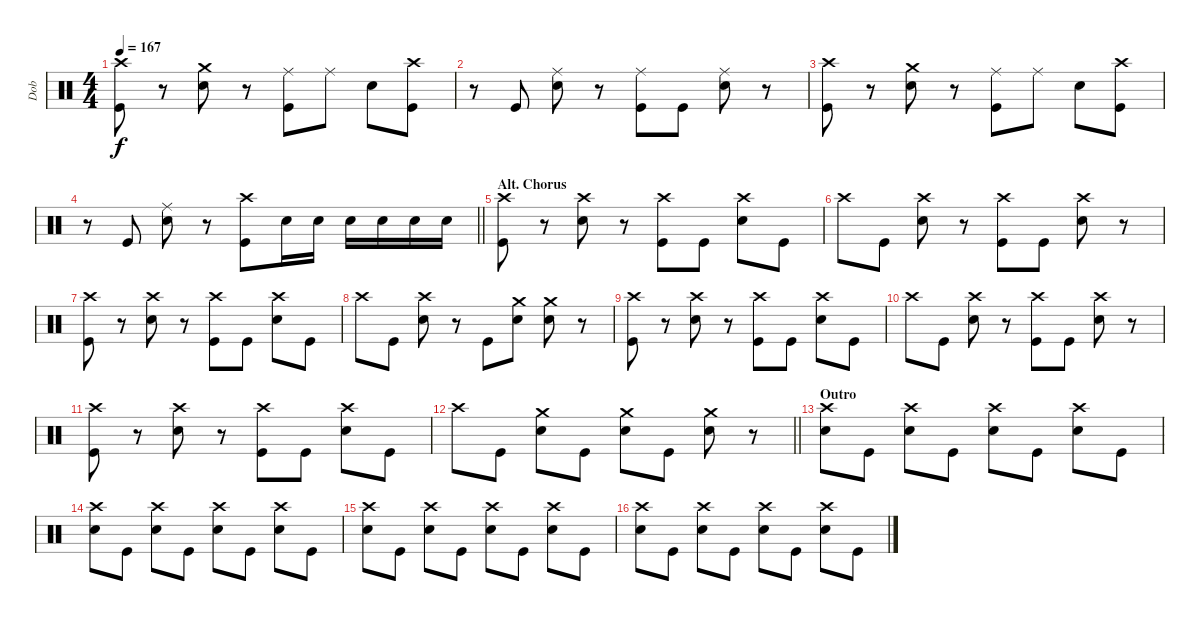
\track ("Dob" "Dob") {instrument percussion}
\staff {score}
\articulation defaults
\ts (4 4)
\tempo 167
\clef neutral
\ks c
("Crash high (hit)" "Kick (hit)").8{dy f} r.8 ("Crash medium (hit)" "Snare (hit) 2").8 r.8 ("Ride (middle)" "Kick (hit)").8 "Ride (middle)".8 "Snare (hit) 2".8 ("Crash high (hit)" "Kick (hit)").8 |
r.8 "Kick (hit)".8 ("Ride (middle)" "Snare (hit) 2").8 r.8 ("Ride (middle)" "Kick (hit)").8 "Kick (hit)".8 ("Ride (middle)" "Snare (hit) 2").8 r.8 |
("Crash high (hit)" "Kick (hit)").8 r.8 ("Crash medium (hit)" "Snare (hit) 2").8 r.8 ("Ride (middle)" "Kick (hit)").8 "Ride (middle)".8 "Snare (hit) 2".8 ("Crash high (hit)" "Kick (hit)").8 |
\barLineRight lightlight
r.8 "Kick (hit)".8 ("Ride (middle)" "Snare (hit) 2").8 r.8 ("Crash high (hit)" "Kick (hit)").8 "Snare (hit) 2".16 "Snare (hit) 2".16 "Snare (hit) 2".16 "Snare (hit) 2".16 "Snare (hit) 2".16 "Snare (hit) 2".16 |
\section ("" "Alt. Chorus")
("Crash high (hit)" "Kick (hit)").8 r.8 ("Crash high (hit)" "Snare (hit) 2").8 r.8 ("Crash high (hit)" "Kick (hit)").8 "Kick (hit)".8 ("Crash high (hit)" "Snare (hit) 2").8 "Kick (hit)".8 |
"Crash high (hit)".8 "Kick (hit)".8 ("Crash high (hit)" "Snare (hit) 2").8 r.8 ("Crash high (hit)" "Kick (hit)").8 "Kick (hit)".8 ("Crash high (hit)" "Snare (hit) 2").8 r.8 |
("Crash high (hit)" "Kick (hit)").8 r.8 ("Crash high (hit)" "Snare (hit) 2").8 r.8 ("Crash high (hit)" "Kick (hit)").8 "Kick (hit)".8 ("Crash high (hit)" "Snare (hit) 2").8 "Kick (hit)".8 |
"Crash high (hit)".8 "Kick (hit)".8 ("Crash high (hit)" "Snare (hit) 2").8 r.8 "Kick (hit)".8 ("Crash medium (hit)" "Snare (hit) 2").8 ("Crash medium (hit)" "Snare (hit) 2").8 r.8 |
("Crash high (hit)" "Kick (hit)").8 r.8 ("Crash high (hit)" "Snare (hit) 2").8 r.8 ("Crash high (hit)" "Kick (hit)").8 "Kick (hit)".8 ("Crash high (hit)" "Snare (hit) 2").8 "Kick (hit)".8 |
"Crash high (hit)".8 "Kick (hit)".8 ("Crash high (hit)" "Snare (hit) 2").8 r.8 ("Crash high (hit)" "Kick (hit)").8 "Kick (hit)".8 ("Crash high (hit)" "Snare (hit) 2").8 r.8 |
("Crash high (hit)" "Kick (hit)").8 r.8 ("Crash high (hit)" "Snare (hit) 2").8 r.8 ("Crash high (hit)" "Kick (hit)").8 "Kick (hit)".8 ("Crash high (hit)" "Snare (hit) 2").8 "Kick (hit)".8 |
\barLineRight lightlight "Crash high (hit)".8 "Kick (hit)".8
("Crash medium (hit)" "Snare (hit) 2").8 "Kick (hit)".8 ("Crash medium (hit)" "Snare (hit) 2").8 "Kick (hit)".8 ("Crash medium (hit)" "Snare (hit) 2").8 r.8 |
\section ("" "Outro")
("Crash high (hit)" "Snare (hit) 2").8 "Kick (hit)".8 ("Crash high (hit)" "Snare (hit) 2").8 "Kick (hit)".8 ("Crash high (hit)" "Snare (hit) 2").8 "Kick (hit)".8 ("Crash high (hit)" "Snare (hit) 2").8 "Kick (hit)".8 |
("Crash high (hit)" "Snare (hit) 2").8 "Kick (hit)".8 ("Crash high (hit)" "Snare (hit) 2").8 "Kick (hit)".8 ("Crash high (hit)" "Snare (hit) 2").8 "Kick (hit)".8 ("Crash high (hit)" "Snare (hit) 2").8 "Kick (hit)".8 |
("Crash high (hit)" "Snare (hit) 2").8 "Kick (hit)".8 ("Crash high (hit)" "Snare (hit) 2").8 "Kick (hit)".8 ("Crash high (hit)" "Snare (hit) 2").8 "Kick (hit)".8 ("Crash high (hit)" "Snare (hit) 2").8 "Kick (hit)".8 |
("Crash high (hit)" "Snare (hit) 2").8 "Kick (hit)".8 ("Crash high (hit)" "Snare (hit) 2").8 "Kick (hit)".8 ("Crash high (hit)" "Snare (hit) 2").8 "Kick (hit)".8 ("Crash high (hit)" "Snare (hit) 2").8 "Kick (hit)".8
